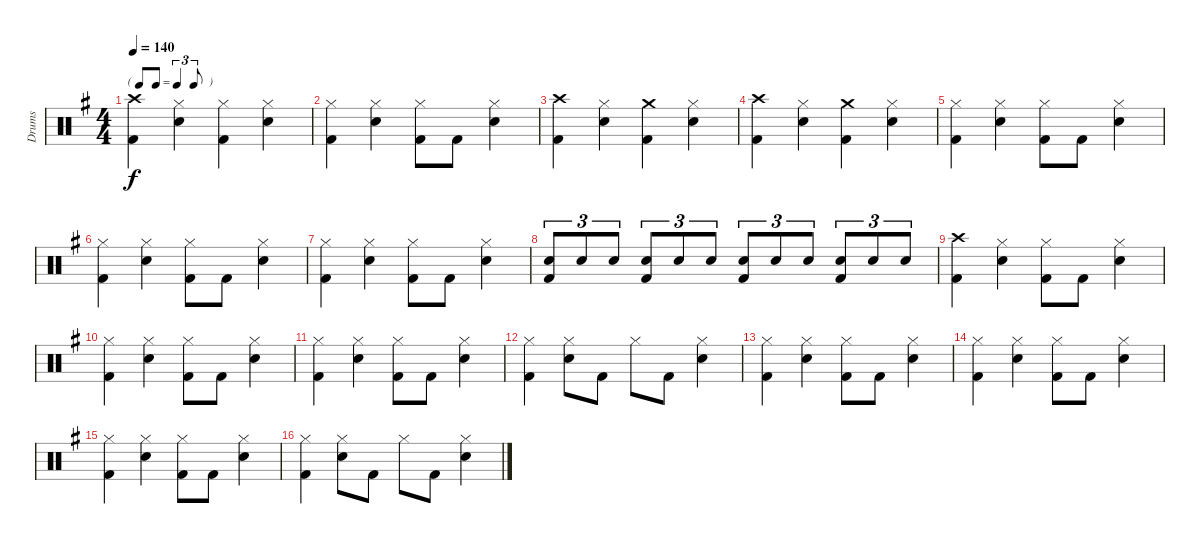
\track ("Drums" "Drums") {instrument percussion}
\staff {score}
\articulation defaults
\ts (4 4)
\tf triplet8th
\tempo 140
\clef neutral
\ks eminor
("Kick (hit) 2" "Crash high (hit)").4{dy f} ("Snare (hit) 2" "Hi-Hat (closed)").4 ("Kick (hit) 2" "Hi-Hat (closed)").4 ("Snare (hit) 2" "Hi-Hat (closed)").4 |
("Kick (hit) 2" "Hi-Hat (closed)").4 ("Snare (hit) 2" "Hi-Hat (closed)").4 ("Kick (hit) 2" "Hi-Hat (closed)").8 "Kick (hit) 2".8 ("Snare (hit) 2" "Hi-Hat (closed)").4 |
("Kick (hit) 2" "Crash high (hit)").4 ("Snare (hit) 2" "Hi-Hat (closed)").4 ("Kick (hit) 2" "Crash medium (hit)").4 ("Snare (hit) 2" "Hi-Hat (closed)").4 |
("Kick (hit) 2" "Crash high (hit)").4 ("Snare (hit) 2" "Hi-Hat (closed)").4 ("Kick (hit) 2" "Crash medium (hit)").4 ("Snare (hit) 2" "Hi-Hat (closed)").4 |
("Kick (hit) 2" "Hi-Hat (closed)").4 ("Snare (hit) 2" "Hi-Hat (closed)").4 ("Kick (hit) 2" "Hi-Hat (closed)").8 "Kick (hit) 2".8 ("Snare (hit) 2" "Hi-Hat (closed)").4 |
("Kick (hit) 2" "Hi-Hat (closed)").4 ("Snare (hit) 2" "Hi-Hat (closed)").4 ("Kick (hit) 2" "Hi-Hat (closed)").8 "Kick (hit) 2".8 ("Snare (hit) 2" "Hi-Hat (closed)").4 |
("Kick (hit) 2" "Hi-Hat (closed)").4 ("Snare (hit) 2" "Hi-Hat (closed)").4 ("Kick (hit) 2" "Hi-Hat (closed)").8 "Kick (hit) 2".8 ("Snare (hit) 2" "Hi-Hat (closed)").4 |
("Kick (hit) 2" "Snare (hit) 2").8{tu (3 2)} "Snare (hit) 2".8{tu (3 2)} "Snare (hit) 2".8{tu (3 2)} ("Kick (hit) 2" "Snare (hit) 2").8{tu (3 2)} "Snare (hit) 2".8{tu (3 2)} "Snare (hit) 2".8{tu (3 2)} ("Kick (hit) 2" "Snare (hit) 2").8{tu (3 2)} "Snare (hit) 2".8{tu (3 2)} "Snare (hit) 2".8{tu (3 2)} ("Kick (hit) 2" "Snare (hit) 2").8{tu (3 2)} "Snare (hit) 2".8{tu (3 2)} "Snare (hit) 2".8{tu (3 2)} |
("Kick (hit) 2" "Crash high (hit)").4 ("Snare (hit) 2" "Hi-Hat (closed)").4 ("Kick (hit) 2" "Hi-Hat (closed)").8 "Kick (hit) 2".8 ("Snare (hit) 2" "Hi-Hat (closed)").4 |
("Kick (hit) 2" "Hi-Hat (closed)").4 ("Snare (hit) 2" "Hi-Hat (closed)").4 ("Kick (hit) 2" "Hi-Hat (closed)").8 "Kick (hit) 2".8 ("Snare (hit) 2" "Hi-Hat (closed)").4 |
("Kick (hit) 2" "Hi-Hat (closed)").4 ("Snare (hit) 2" "Hi-Hat (closed)").4 ("Kick (hit) 2" "Hi-Hat (closed)").8 "Kick (hit) 2".8 ("Snare (hit) 2" "Hi-Hat (closed)").4 |
("Kick (hit) 2" "Hi-Hat (closed)").4 ("Snare (hit) 2" "Hi-Hat (closed)").8 "Kick (hit) 2".8 "Hi-Hat (closed)".8 "Kick (hit) 2".8 ("Snare (hit) 2" "Hi-Hat (closed)").4 |
("Kick (hit) 2" "Hi-Hat (closed)").4 ("Snare (hit) 2" "Hi-Hat (closed)").4 ("Kick (hit) 2" "Hi-Hat (closed)").8 "Kick (hit) 2".8 ("Snare (hit) 2" "Hi-Hat (closed)").4 |
("Kick (hit) 2" "Hi-Hat (closed)").4 ("Snare (hit) 2" "Hi-Hat (closed)").4 ("Kick (hit) 2" "Hi-Hat (closed)").8 "Kick (hit) 2".8 ("Snare (hit) 2" "Hi-Hat (closed)").4 |
("Kick (hit) 2" "Hi-Hat (closed)").4 ("Snare (hit) 2" "Hi-Hat (closed)").4 ("Kick (hit) 2" "Hi-Hat (closed)").8 "Kick (hit) 2".8 ("Snare (hit) 2" "Hi-Hat (closed)").4 |
("Kick (hit) 2" "Hi-Hat (closed)").4 ("Snare (hit) 2" "Hi-Hat (closed)").8 "Kick (hit) 2".8 "Hi-Hat (closed)".8 "Kick (hit) 2".8 ("Snare (hit) 2" "Hi-Hat (closed)").4
